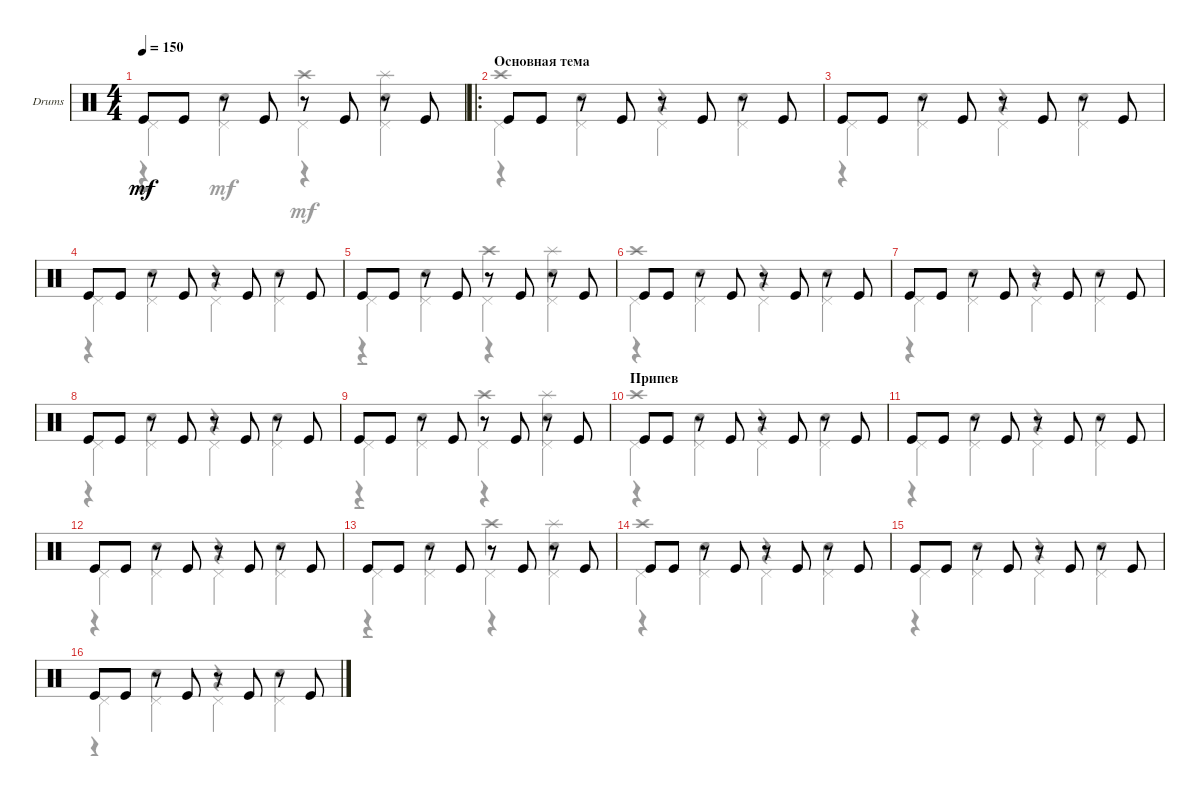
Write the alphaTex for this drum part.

\defaultSystemsLayout 4
\bracketExtendMode groupsimilarinstruments
\firstSystemTrackNameOrientation horizontal
\otherSystemsTrackNameOrientation horizontal
\track ("Drumkit" "Drums") {instrument percussion}
\staff {score}
\articulation defaults
\voice
\ts (4 4)
\tempo 150
\clef neutral
\ks c "Kick (hit)".8{dy mf} "Kick (hit)".8
r.8 "Kick (hit)".8 r.8 "Kick (hit)".8 r.8 "Kick (hit)".8 |
\ro
\section ("" "Основная тема")
"Kick (hit)".8 "Kick (hit)".8 r.8 "Kick (hit)".8 r.8 "Kick (hit)".8 r.8 "Kick (hit)".8 |
"Kick (hit)".8 "Kick (hit)".8 r.8 "Kick (hit)".8 r.8 "Kick (hit)".8 r.8 "Kick (hit)".8 |
"Kick (hit)".8 "Kick (hit)".8 r.8 "Kick (hit)".8 r.8 "Kick (hit)".8 r.8 "Kick (hit)".8 |
"Kick (hit)".8 "Kick (hit)".8 r.8 "Kick (hit)".8 r.8 "Kick (hit)".8 r.8 "Kick (hit)".8 |
"Kick (hit)".8 "Kick (hit)".8 r.8 "Kick (hit)".8 r.8 "Kick (hit)".8 r.8 "Kick (hit)".8 |
"Kick (hit)".8 "Kick (hit)".8 r.8 "Kick (hit)".8 r.8 "Kick (hit)".8 r.8 "Kick (hit)".8 |
"Kick (hit)".8 "Kick (hit)".8 r.8 "Kick (hit)".8 r.8 "Kick (hit)".8 r.8 "Kick (hit)".8 |
"Kick (hit)".8 "Kick (hit)".8 r.8 "Kick (hit)".8 r.8 "Kick (hit)".8 r.8 "Kick (hit)".8 |
\section ("" "Припев")
"Kick (hit)".8 "Kick (hit)".8 r.8 "Kick (hit)".8 r.8 "Kick (hit)".8 r.8 "Kick (hit)".8 |
"Kick (hit)".8 "Kick (hit)".8 r.8 "Kick (hit)".8 r.8 "Kick (hit)".8 r.8 "Kick (hit)".8 |
"Kick (hit)".8 "Kick (hit)".8 r.8 "Kick (hit)".8 r.8 "Kick (hit)".8 r.8 "Kick (hit)".8 |
"Kick (hit)".8 "Kick (hit)".8 r.8 "Kick (hit)".8 r.8 "Kick (hit)".8 r.8 "Kick (hit)".8 |
"Kick (hit)".8 "Kick (hit)".8 r.8 "Kick (hit)".8 r.8 "Kick (hit)".8 r.8 "Kick (hit)".8 |
"Kick (hit)".8 "Kick (hit)".8 r.8 "Kick (hit)".8 r.8 "Kick (hit)".8 r.8 "Kick (hit)".8 |
"Kick (hit)".8 "Kick (hit)".8 r.8 "Kick (hit)".8 r.8 "Kick (hit)".8 r.8 "Kick (hit)".8
\voice
\clef neutral
\ottava regular
\simile none
\ks c "Pedal Hi-Hat (hit)".4{dy mf} "Pedal Hi-Hat (hit)".4 "Pedal Hi-Hat (hit)".4 "Pedal Hi-Hat (hit)".4
|
"Pedal Hi-Hat (hit)".4 "Pedal Hi-Hat (hit)".4 "Pedal Hi-Hat (hit)".4 "Pedal Hi-Hat (hit)".4 |
"Pedal Hi-Hat (hit)".4 "Pedal Hi-Hat (hit)".4 "Pedal Hi-Hat (hit)".4 "Pedal Hi-Hat (hit)".4 |
"Pedal Hi-Hat (hit)".4 "Pedal Hi-Hat (hit)".4 "Pedal Hi-Hat (hit)".4 "Pedal Hi-Hat (hit)".4 |
"Pedal Hi-Hat (hit)".4 "Pedal Hi-Hat (hit)".4 "Pedal Hi-Hat (hit)".4 "Pedal Hi-Hat (hit)".4 |
"Pedal Hi-Hat (hit)".4 "Pedal Hi-Hat (hit)".4 "Pedal Hi-Hat (hit)".4 "Pedal Hi-Hat (hit)".4 |
"Pedal Hi-Hat (hit)".4 "Pedal Hi-Hat (hit)".4 "Pedal Hi-Hat (hit)".4 "Pedal Hi-Hat (hit)".4 |
"Pedal Hi-Hat (hit)".4 "Pedal Hi-Hat (hit)".4 "Pedal Hi-Hat (hit)".4 "Pedal Hi-Hat (hit)".4 |
"Pedal Hi-Hat (hit)".4 "Pedal Hi-Hat (hit)".4 "Pedal Hi-Hat (hit)".4 "Pedal Hi-Hat (hit)".4 |
"Pedal Hi-Hat (hit)".4 "Pedal Hi-Hat (hit)".4 "Pedal Hi-Hat (hit)".4 "Pedal Hi-Hat (hit)".4 |
"Pedal Hi-Hat (hit)".4 "Pedal Hi-Hat (hit)".4 "Pedal Hi-Hat (hit)".4 "Pedal Hi-Hat (hit)".4 |
"Pedal Hi-Hat (hit)".4 "Pedal Hi-Hat (hit)".4 "Pedal Hi-Hat (hit)".4 "Pedal Hi-Hat (hit)".4 |
"Pedal Hi-Hat (hit)".4 "Pedal Hi-Hat (hit)".4 "Pedal Hi-Hat (hit)".4 "Pedal Hi-Hat (hit)".4 |
"Pedal Hi-Hat (hit)".4 "Pedal Hi-Hat (hit)".4 "Pedal Hi-Hat (hit)".4 "Pedal Hi-Hat (hit)".4 |
"Pedal Hi-Hat (hit)".4 "Pedal Hi-Hat (hit)".4 "Pedal Hi-Hat (hit)".4 "Pedal Hi-Hat (hit)".4 |
"Pedal Hi-Hat (hit)".4 "Pedal Hi-Hat (hit)".4 "Pedal Hi-Hat (hit)".4 "Pedal Hi-Hat (hit)".4
\voice
\clef neutral
\ottava regular
\simile none
\ks c
r.4{dy mf} "Snare (hit) 2".4 r.4 "Snare (hit) 2".4 |
r.4 "Snare (hit) 2".4 r.4 "Snare (hit) 2".4 |
r.4 "Snare (hit) 2".4 r.4 "Snare (hit) 2".4 |
r.4 "Snare (hit) 2".4 r.4 "Snare (hit) 2".4 |
r.4 "Snare (hit) 2".4 r.4 "Snare (hit) 2".4 |
r.4 "Snare (hit) 2".4 r.4 "Snare (hit) 2".4 |
r.4 "Snare (hit) 2".4 r.4 "Snare (hit) 2".4 |
r.4 "Snare (hit) 2".4 r.4 "Snare (hit) 2".4 |
r.4 "Snare (hit) 2".4 r.4 "Snare (hit) 2".4 |
r.4 "Snare (hit) 2".4 r.4 "Snare (hit) 2".4 |
r.4 "Snare (hit) 2".4 r.4 "Snare (hit) 2".4 |
r.4 "Snare (hit) 2".4 r.4 "Snare (hit) 2".4 |
r.4 "Snare (hit) 2".4 r.4 "Snare (hit) 2".4 |
r.4 "Snare (hit) 2".4 r.4 "Snare (hit) 2".4 |
r.4 "Snare (hit) 2".4 r.4 "Snare (hit) 2".4 |
r.4 "Snare (hit) 2".4 r.4 "Snare (hit) 2".4
\voice
\clef neutral
\ottava regular
\simile none
\ks c
r.2{dy mf} "Crash high (hit)".4 "Splash (hit)".4 |
"Crash high (hit)".1 |
|
|
r.2 "Crash high (hit)".4 "Splash (hit)".4 |
"Crash high (hit)".1 |
|
|
r.2 "Crash high (hit)".4 "Splash (hit)".4 |
"Crash high (hit)".1 |
|
|
r.2 "Crash high (hit)".4 "Splash (hit)".4 |
"Crash high (hit)".1 |
|
